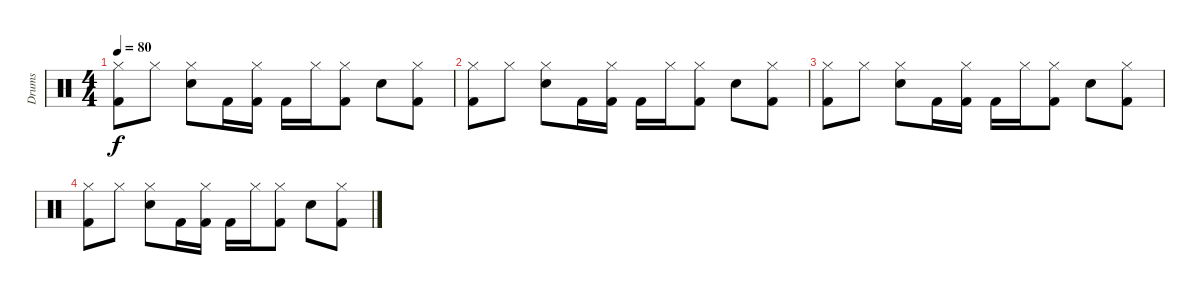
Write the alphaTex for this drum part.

\track ("Drums" "Drums") {instrument percussion}
\staff {score}
\articulation defaults
\ts (4 4)
\tempo 80
\clef neutral
\ks c
("Hi-Hat (closed)" "Kick (hit) 2").8{dy f} "Hi-Hat (closed)".8 ("Hi-Hat (closed)" "Electric Snare (hit)").8 "Kick (hit) 2".16 ("Hi-Hat (closed)" "Kick (hit) 2").16 "Kick (hit) 2".16 "Hi-Hat (closed)".16 ("Hi-Hat (closed)" "Kick (hit) 2").8 "Electric Snare (hit)".8 ("Hi-Hat (closed)" "Kick (hit) 2").8 |
("Hi-Hat (closed)" "Kick (hit) 2").8 "Hi-Hat (closed)".8 ("Hi-Hat (closed)" "Electric Snare (hit)").8 "Kick (hit) 2".16 ("Hi-Hat (closed)" "Kick (hit) 2").16 "Kick (hit) 2".16 "Hi-Hat (closed)".16 ("Hi-Hat (closed)" "Kick (hit) 2").8 "Electric Snare (hit)".8 ("Hi-Hat (closed)" "Kick (hit) 2").8 |
("Hi-Hat (closed)" "Kick (hit) 2").8 "Hi-Hat (closed)".8 ("Hi-Hat (closed)" "Electric Snare (hit)").8 "Kick (hit) 2".16 ("Hi-Hat (closed)" "Kick (hit) 2").16 "Kick (hit) 2".16 "Hi-Hat (closed)".16 ("Hi-Hat (closed)" "Kick (hit) 2").8 "Electric Snare (hit)".8 ("Hi-Hat (closed)" "Kick (hit) 2").8 |
("Hi-Hat (closed)" "Kick (hit) 2").8 "Hi-Hat (closed)".8 ("Hi-Hat (closed)" "Electric Snare (hit)").8 "Kick (hit) 2".16 ("Hi-Hat (closed)" "Kick (hit) 2").16 "Kick (hit) 2".16 "Hi-Hat (closed)".16 ("Hi-Hat (closed)" "Kick (hit) 2").8 "Electric Snare (hit)".8 ("Hi-Hat (closed)" "Kick (hit) 2").8
